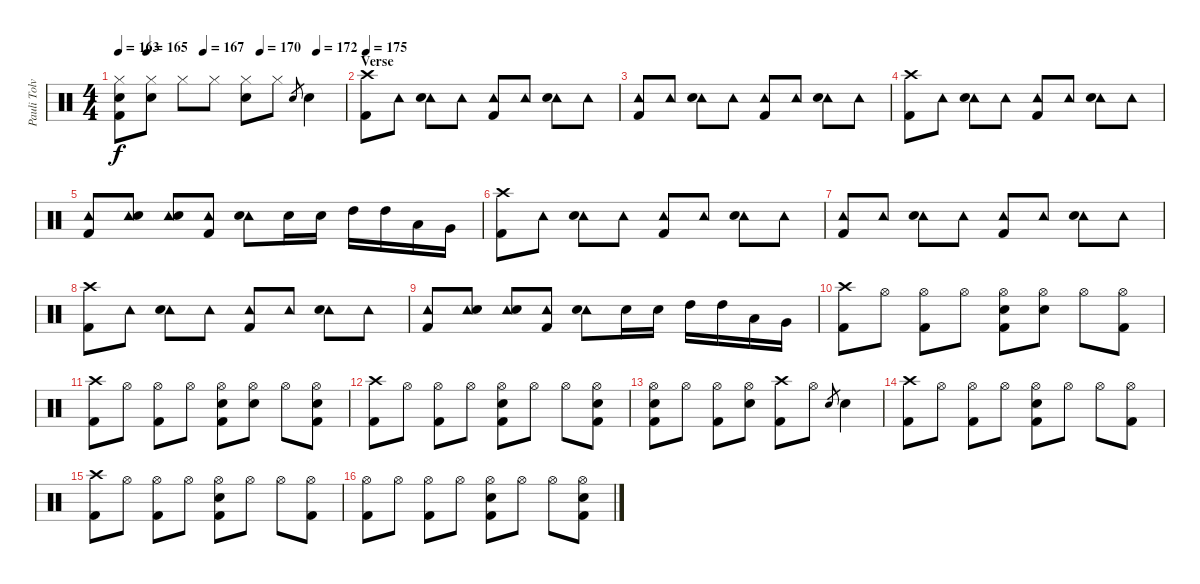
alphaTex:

\track ("Pauli Tolvanen-Drums" "Pauli Tolv") {instrument percussion}
\staff {score}
\articulation defaults
\ts (4 4)
\tempo 163
\tempo (165 0.125)
\tempo (167 0.375)
\tempo (170 0.625)
\tempo (172 0.875)
\clef neutral
\ks c
("Hi-Hat (closed)" "Snare (hit) 2" "Kick (hit) 2").8{dy f} ("Hi-Hat (closed)" "Snare (hit) 2").8 "Hi-Hat (closed)".8 "Hi-Hat (closed)".8 ("Hi-Hat (closed)" "Snare (hit) 2").8 "Hi-Hat (closed)".8 "Snare (hit) 2".8{gr} "Snare (hit) 2".4 |
\section ("" "Verse")
\tempo 175
("Crash high (hit)" "Kick (hit) 2").8 "Tambourine (hit)".8 ("Tambourine (hit)" "Snare (hit) 2").8 "Tambourine (hit)".8 ("Tambourine (hit)" "Kick (hit) 2").8 "Tambourine (hit)".8 ("Tambourine (hit)" "Snare (hit) 2").8 "Tambourine (hit)".8 |
("Tambourine (hit)" "Kick (hit) 2").8 "Tambourine (hit)".8 ("Tambourine (hit)" "Snare (hit) 2").8 "Tambourine (hit)".8 ("Tambourine (hit)" "Kick (hit) 2").8 "Tambourine (hit)".8 ("Tambourine (hit)" "Snare (hit) 2").8 "Tambourine (hit)".8 |
("Crash high (hit)" "Kick (hit) 2").8 "Tambourine (hit)".8 ("Tambourine (hit)" "Snare (hit) 2").8 "Tambourine (hit)".8 ("Tambourine (hit)" "Kick (hit) 2").8 "Tambourine (hit)".8 ("Tambourine (hit)" "Snare (hit) 2").8 "Tambourine (hit)".8 |
("Tambourine (hit)" "Kick (hit) 2").8 ("Tambourine (hit)" "Snare (hit) 2").8 ("Tambourine (hit)" "Snare (hit) 2").8 ("Tambourine (hit)" "Kick (hit) 2").8 ("Tambourine (hit)" "Snare (hit) 2").8 "Snare (hit) 2".16 "Snare (hit) 2".16 "High Tom (hit)".16 "High Tom (hit)".16 "Low Tom (hit)".16 "Very Low Tom (hit)".16 |
("Crash high (hit)" "Kick (hit) 2").8 "Tambourine (hit)".8 ("Tambourine (hit)" "Snare (hit) 2").8 "Tambourine (hit)".8 ("Tambourine (hit)" "Kick (hit) 2").8 "Tambourine (hit)".8 ("Tambourine (hit)" "Snare (hit) 2").8 "Tambourine (hit)".8 |
("Tambourine (hit)" "Kick (hit) 2").8 "Tambourine (hit)".8 ("Tambourine (hit)" "Snare (hit) 2").8 "Tambourine (hit)".8 ("Tambourine (hit)" "Kick (hit) 2").8 "Tambourine (hit)".8 ("Tambourine (hit)" "Snare (hit) 2").8 "Tambourine (hit)".8 |
("Crash high (hit)" "Kick (hit) 2").8 "Tambourine (hit)".8 ("Tambourine (hit)" "Snare (hit) 2").8 "Tambourine (hit)".8 ("Tambourine (hit)" "Kick (hit) 2").8 "Tambourine (hit)".8 ("Tambourine (hit)" "Snare (hit) 2").8 "Tambourine (hit)".8 |
("Tambourine (hit)" "Kick (hit) 2").8 ("Tambourine (hit)" "Snare (hit) 2").8 ("Tambourine (hit)" "Snare (hit) 2").8 ("Tambourine (hit)" "Kick (hit) 2").8 ("Tambourine (hit)" "Snare (hit) 2").8 "Snare (hit) 2".16 "Snare (hit) 2".16 "High Tom (hit)".16 "High Tom (hit)".16 "Low Tom (hit)".16 "Very Low Tom (hit)".16 |
("Crash high (hit)" "Kick (hit) 2").8 "Hi-Hat (open)".8 ("Hi-Hat (open)" "Kick (hit) 2").8 "Hi-Hat (open)".8 ("Hi-Hat (open)" "Snare (hit) 2" "Kick (hit) 2").8 ("Hi-Hat (open)" "Snare (hit) 2").8 "Hi-Hat (open)".8 ("Hi-Hat (open)" "Kick (hit) 2").8 |
("Crash high (hit)" "Kick (hit) 2").8 "Hi-Hat (open)".8 ("Hi-Hat (open)" "Kick (hit) 2").8 "Hi-Hat (open)".8 ("Hi-Hat (open)" "Snare (hit) 2" "Kick (hit) 2").8 ("Hi-Hat (open)" "Snare (hit) 2").8 "Hi-Hat (open)".8 ("Hi-Hat (open)" "Snare (hit) 2" "Kick (hit) 2").8 |
("Crash high (hit)" "Kick (hit) 2").8 "Hi-Hat (open)".8 ("Hi-Hat (open)" "Kick (hit) 2").8 "Hi-Hat (open)".8 ("Hi-Hat (open)" "Snare (hit) 2" "Kick (hit) 2").8 "Hi-Hat (open)".8 "Hi-Hat (open)".8 ("Hi-Hat (open)" "Snare (hit) 2" "Kick (hit) 2").8 |
("Hi-Hat (open)" "Snare (hit) 2" "Kick (hit) 2").8 "Hi-Hat (open)".8 ("Hi-Hat (open)" "Kick (hit) 2").8 ("Hi-Hat (open)" "Snare (hit) 2").8 ("Crash high (hit)" "Kick (hit) 2").8 "Hi-Hat (open)".8 "Snare (hit) 2".8{gr} "Snare (hit) 2".4 |
("Crash high (hit)" "Kick (hit) 2").8 "Hi-Hat (open)".8 ("Hi-Hat (open)" "Kick (hit) 2").8 "Hi-Hat (open)".8 ("Hi-Hat (open)" "Snare (hit) 2" "Kick (hit) 2").8 "Hi-Hat (open)".8 "Hi-Hat (open)".8 ("Hi-Hat (open)" "Kick (hit) 2").8 |
("Crash high (hit)" "Kick (hit) 2").8 "Hi-Hat (open)".8 ("Hi-Hat (open)" "Kick (hit) 2").8 "Hi-Hat (open)".8 ("Hi-Hat (open)" "Snare (hit) 2" "Kick (hit) 2").8 "Hi-Hat (open)".8 "Hi-Hat (open)".8 ("Hi-Hat (open)" "Kick (hit) 2").8 |
("Hi-Hat (open)" "Kick (hit) 2").8 "Hi-Hat (open)".8 ("Hi-Hat (open)" "Kick (hit) 2").8 "Hi-Hat (open)".8 ("Hi-Hat (open)" "Snare (hit) 2" "Kick (hit) 2").8 "Hi-Hat (open)".8 "Hi-Hat (open)".8 ("Hi-Hat (open)" "Snare (hit) 2" "Kick (hit) 2").8
